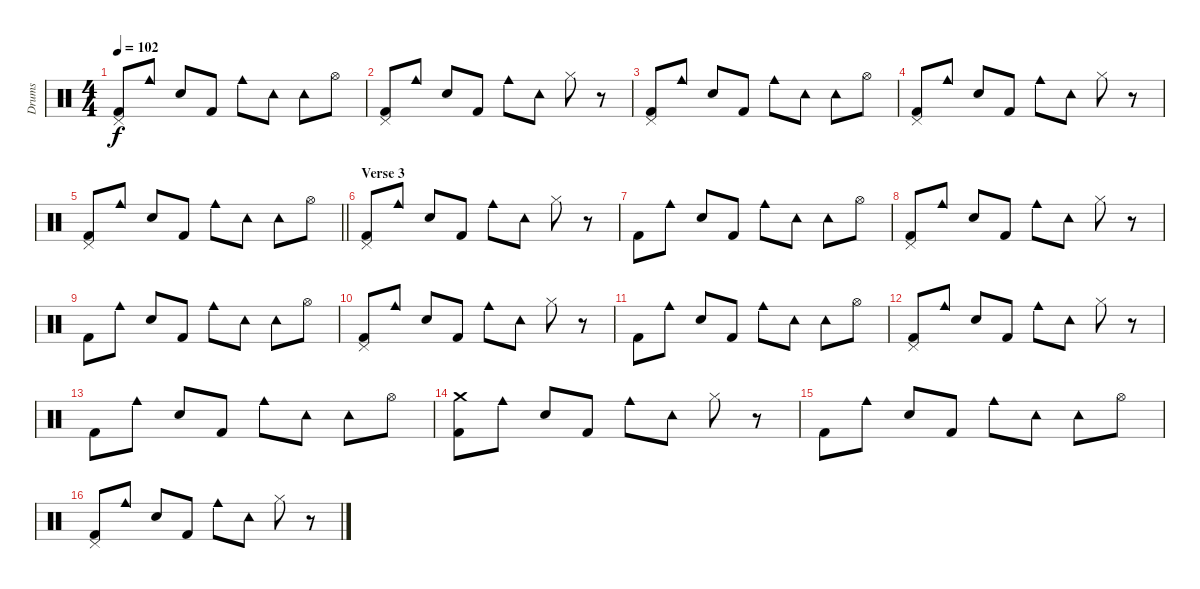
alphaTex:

\track ("Drums" "Drums") {instrument percussion}
\staff {score}
\articulation defaults
\ts (4 4)
\tempo 102
\clef neutral
\ks c
("Pedal Hi-Hat (hit)" "Kick (hit) 2").8{dy f} "Cowbell medium (hit)".8 "Electric Snare (hit)".8 "Kick (hit) 2".8 "Cowbell medium (hit)".8 "Tambourine (hit)".8 "Tambourine (hit)".8 "Hi-Hat (open)".8 |
("Pedal Hi-Hat (hit)" "Kick (hit) 2").8 "Cowbell medium (hit)".8 "Electric Snare (hit)".8 "Kick (hit) 2".8 "Cowbell medium (hit)".8 "Tambourine (hit)".8 "Hi-Hat (closed)".8 r.8 |
("Pedal Hi-Hat (hit)" "Kick (hit) 2").8 "Cowbell medium (hit)".8 "Electric Snare (hit)".8 "Kick (hit) 2".8 "Cowbell medium (hit)".8 "Tambourine (hit)".8 "Tambourine (hit)".8 "Hi-Hat (open)".8 |
("Pedal Hi-Hat (hit)" "Kick (hit) 2").8 "Cowbell medium (hit)".8 "Electric Snare (hit)".8 "Kick (hit) 2".8 "Cowbell medium (hit)".8 "Tambourine (hit)".8 "Hi-Hat (closed)".8 r.8 |
\barLineRight lightlight
("Pedal Hi-Hat (hit)" "Kick (hit) 2").8 "Cowbell medium (hit)".8 "Electric Snare (hit)".8 "Kick (hit) 2".8 "Cowbell medium (hit)".8 "Tambourine (hit)".8 "Tambourine (hit)".8 "Hi-Hat (open)".8 |
\section ("" "Verse 3")
("Pedal Hi-Hat (hit)" "Kick (hit) 2").8 "Cowbell medium (hit)".8 "Electric Snare (hit)".8 "Kick (hit) 2".8 "Cowbell medium (hit)".8 "Tambourine (hit)".8 "Hi-Hat (closed)".8 r.8 |
"Kick (hit) 2".8 "Cowbell medium (hit)".8 "Electric Snare (hit)".8 "Kick (hit) 2".8 "Cowbell medium (hit)".8 "Tambourine (hit)".8 "Tambourine (hit)".8 "Hi-Hat (open)".8 |
("Pedal Hi-Hat (hit)" "Kick (hit) 2").8 "Cowbell medium (hit)".8 "Electric Snare (hit)".8 "Kick (hit) 2".8 "Cowbell medium (hit)".8 "Tambourine (hit)".8 "Hi-Hat (closed)".8 r.8 |
"Kick (hit) 2".8 "Cowbell medium (hit)".8 "Electric Snare (hit)".8 "Kick (hit) 2".8 "Cowbell medium (hit)".8 "Tambourine (hit)".8 "Tambourine (hit)".8 "Hi-Hat (open)".8 |
("Pedal Hi-Hat (hit)" "Kick (hit) 2").8 "Cowbell medium (hit)".8 "Electric Snare (hit)".8 "Kick (hit) 2".8 "Cowbell medium (hit)".8 "Tambourine (hit)".8 "Hi-Hat (closed)".8 r.8 |
"Kick (hit) 2".8 "Cowbell medium (hit)".8 "Electric Snare (hit)".8 "Kick (hit) 2".8 "Cowbell medium (hit)".8 "Tambourine (hit)".8 "Tambourine (hit)".8 "Hi-Hat (open)".8 |
("Pedal Hi-Hat (hit)" "Kick (hit) 2").8 "Cowbell medium (hit)".8 "Electric Snare (hit)".8 "Kick (hit) 2".8 "Cowbell medium (hit)".8 "Tambourine (hit)".8 "Hi-Hat (closed)".8 r.8 |
"Kick (hit) 2".8 "Cowbell medium (hit)".8 "Electric Snare (hit)".8 "Kick (hit) 2".8 "Cowbell medium (hit)".8 "Tambourine (hit)".8 "Tambourine (hit)".8 "Hi-Hat (open)".8 |
("Crash medium (hit)" "Kick (hit) 2").8 "Cowbell medium (hit)".8 "Electric Snare (hit)".8 "Kick (hit) 2".8 "Cowbell medium (hit)".8 "Tambourine (hit)".8 "Hi-Hat (closed)".8 r.8 |
"Kick (hit) 2".8 "Cowbell medium (hit)".8 "Electric Snare (hit)".8 "Kick (hit) 2".8 "Cowbell medium (hit)".8 "Tambourine (hit)".8 "Tambourine (hit)".8 "Hi-Hat (open)".8 |
("Pedal Hi-Hat (hit)" "Kick (hit) 2").8 "Cowbell medium (hit)".8 "Electric Snare (hit)".8 "Kick (hit) 2".8 "Cowbell medium (hit)".8 "Tambourine (hit)".8 "Hi-Hat (closed)".8 r.8
